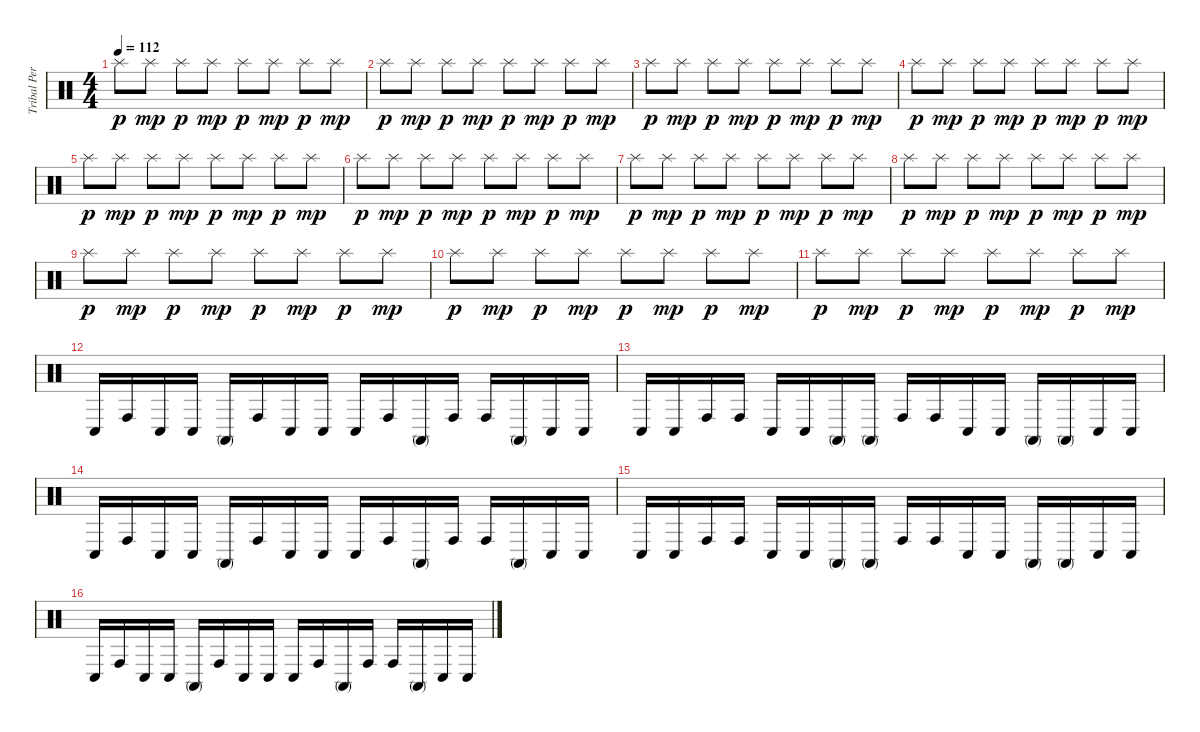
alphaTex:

\track ("Tribal Percussion" "Tribal Per") {instrument percussion}
\staff {score}
\articulation defaults
\ts (4 4)
\tempo 112
\clef neutral
\ks c "Splash (hit)".8{dy p} "Splash (hit)".8{dy mp} "Splash (hit)".8{dy p} "Splash (hit)".8{dy mp} "Splash (hit)".8{dy p} "Splash (hit)".8{dy mp} "Splash (hit)".8{dy p} "Splash (hit)".8{dy mp}
|
"Splash (hit)".8{dy p} "Splash (hit)".8{dy mp} "Splash (hit)".8{dy p} "Splash (hit)".8{dy mp} "Splash (hit)".8{dy p} "Splash (hit)".8{dy mp} "Splash (hit)".8{dy p} "Splash (hit)".8{dy mp} |
"Splash (hit)".8{dy p} "Splash (hit)".8{dy mp} "Splash (hit)".8{dy p} "Splash (hit)".8{dy mp} "Splash (hit)".8{dy p} "Splash (hit)".8{dy mp} "Splash (hit)".8{dy p} "Splash (hit)".8{dy mp} |
"Splash (hit)".8{dy p} "Splash (hit)".8{dy mp} "Splash (hit)".8{dy p} "Splash (hit)".8{dy mp} "Splash (hit)".8{dy p} "Splash (hit)".8{dy mp} "Splash (hit)".8{dy p} "Splash (hit)".8{dy mp} |
"Splash (hit)".8{dy p} "Splash (hit)".8{dy mp} "Splash (hit)".8{dy p} "Splash (hit)".8{dy mp} "Splash (hit)".8{dy p} "Splash (hit)".8{dy mp} "Splash (hit)".8{dy p} "Splash (hit)".8{dy mp} |
"Splash (hit)".8{dy p} "Splash (hit)".8{dy mp} "Splash (hit)".8{dy p} "Splash (hit)".8{dy mp} "Splash (hit)".8{dy p} "Splash (hit)".8{dy mp} "Splash (hit)".8{dy p} "Splash (hit)".8{dy mp} |
"Splash (hit)".8{dy p} "Splash (hit)".8{dy mp} "Splash (hit)".8{dy p} "Splash (hit)".8{dy mp} "Splash (hit)".8{dy p} "Splash (hit)".8{dy mp} "Splash (hit)".8{dy p} "Splash (hit)".8{dy mp} |
"Splash (hit)".8{dy p} "Splash (hit)".8{dy mp} "Splash (hit)".8{dy p} "Splash (hit)".8{dy mp} "Splash (hit)".8{dy p} "Splash (hit)".8{dy mp} "Splash (hit)".8{dy p} "Splash (hit)".8{dy mp} |
"Splash (hit)".8{dy p} "Splash (hit)".8{dy mp} "Splash (hit)".8{dy p} "Splash (hit)".8{dy mp} "Splash (hit)".8{dy p} "Splash (hit)".8{dy mp} "Splash (hit)".8{dy p} "Splash (hit)".8{dy mp} |
"Splash (hit)".8{dy p} "Splash (hit)".8{dy mp} "Splash (hit)".8{dy p} "Splash (hit)".8{dy mp} "Splash (hit)".8{dy p} "Splash (hit)".8{dy mp} "Splash (hit)".8{dy p} "Splash (hit)".8{dy mp} |
"Splash (hit)".8{dy p} "Splash (hit)".8{dy mp} "Splash (hit)".8{dy p} "Splash (hit)".8{dy mp} "Splash (hit)".8{dy p} "Splash (hit)".8{dy mp} "Splash (hit)".8{dy p} "Splash (hit)".8{dy mp} |
"Conga low (hit)".16 "Conga high (hit)".16 "Conga low (hit)".16 "Conga low (hit)".16 "Conga high (mute)".16 "Conga high (hit)".16 "Conga low (hit)".16 "Conga low (hit)".16 "Conga low (hit)".16 "Conga high (hit)".16 "Conga high (mute)".16 "Conga high (hit)".16 "Conga high (hit)".16 "Conga high (mute)".16 "Conga low (hit)".16 "Conga low (hit)".16 |
"Conga low (hit)".16 "Conga low (hit)".16 "Conga high (hit)".16 "Conga high (hit)".16 "Conga low (hit)".16 "Conga low (hit)".16 "Conga high (mute)".16 "Conga high (mute)".16 "Conga high (hit)".16 "Conga high (hit)".16 "Conga low (hit)".16 "Conga low (hit)".16 "Conga high (mute)".16 "Conga high (mute)".16 "Conga low (hit)".16 "Conga low (hit)".16 |
"Conga low (hit)".16 "Conga high (hit)".16 "Conga low (hit)".16 "Conga low (hit)".16 "Conga high (mute)".16 "Conga high (hit)".16 "Conga low (hit)".16 "Conga low (hit)".16 "Conga low (hit)".16 "Conga high (hit)".16 "Conga high (mute)".16 "Conga high (hit)".16 "Conga high (hit)".16 "Conga high (mute)".16 "Conga low (hit)".16 "Conga low (hit)".16 |
"Conga low (hit)".16 "Conga low (hit)".16 "Conga high (hit)".16 "Conga high (hit)".16 "Conga low (hit)".16 "Conga low (hit)".16 "Conga high (mute)".16 "Conga high (mute)".16 "Conga high (hit)".16 "Conga high (hit)".16 "Conga low (hit)".16 "Conga low (hit)".16 "Conga high (mute)".16 "Conga high (mute)".16 "Conga low (hit)".16 "Conga low (hit)".16 |
"Conga low (hit)".16 "Conga high (hit)".16 "Conga low (hit)".16 "Conga low (hit)".16 "Conga high (mute)".16 "Conga high (hit)".16 "Conga low (hit)".16 "Conga low (hit)".16 "Conga low (hit)".16 "Conga high (hit)".16 "Conga high (mute)".16 "Conga high (hit)".16 "Conga high (hit)".16 "Conga high (mute)".16 "Conga low (hit)".16 "Conga low (hit)".16
